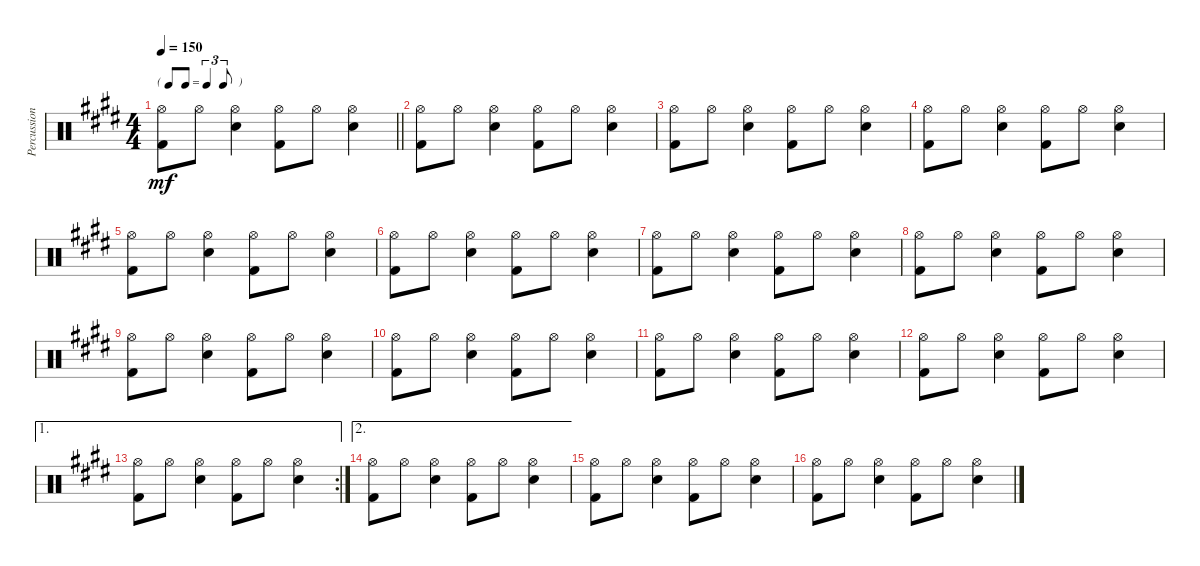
\track ("Percussion" "Percussion") {instrument percussion}
\staff {score}
\articulation defaults
\ts (4 4)
\tf triplet8th
\tempo 150
\clef neutral
\barLineRight lightlight
\ks e
("Hi-Hat (open)" "Kick (hit) 2").8{dy mf} "Hi-Hat (open)".8 ("Hi-Hat (open)" "Snare (hit) 2").4 ("Hi-Hat (open)" "Kick (hit) 2").8 "Hi-Hat (open)".8 ("Hi-Hat (open)" "Snare (hit) 2").4 |
("Hi-Hat (open)" "Kick (hit) 2").8 "Hi-Hat (open)".8 ("Hi-Hat (open)" "Snare (hit) 2").4 ("Hi-Hat (open)" "Kick (hit) 2").8 "Hi-Hat (open)".8 ("Hi-Hat (open)" "Snare (hit) 2").4 |
("Hi-Hat (open)" "Kick (hit) 2").8 "Hi-Hat (open)".8 ("Hi-Hat (open)" "Snare (hit) 2").4 ("Hi-Hat (open)" "Kick (hit) 2").8 "Hi-Hat (open)".8 ("Hi-Hat (open)" "Snare (hit) 2").4 |
("Hi-Hat (open)" "Kick (hit) 2").8 "Hi-Hat (open)".8 ("Hi-Hat (open)" "Snare (hit) 2").4 ("Hi-Hat (open)" "Kick (hit) 2").8 "Hi-Hat (open)".8 ("Hi-Hat (open)" "Snare (hit) 2").4 |
("Hi-Hat (open)" "Kick (hit) 2").8 "Hi-Hat (open)".8 ("Hi-Hat (open)" "Snare (hit) 2").4 ("Hi-Hat (open)" "Kick (hit) 2").8 "Hi-Hat (open)".8 ("Hi-Hat (open)" "Snare (hit) 2").4 |
("Hi-Hat (open)" "Kick (hit) 2").8 "Hi-Hat (open)".8 ("Hi-Hat (open)" "Snare (hit) 2").4 ("Hi-Hat (open)" "Kick (hit) 2").8 "Hi-Hat (open)".8 ("Hi-Hat (open)" "Snare (hit) 2").4 |
("Hi-Hat (open)" "Kick (hit) 2").8 "Hi-Hat (open)".8 ("Hi-Hat (open)" "Snare (hit) 2").4 ("Hi-Hat (open)" "Kick (hit) 2").8 "Hi-Hat (open)".8 ("Hi-Hat (open)" "Snare (hit) 2").4 |
("Hi-Hat (open)" "Kick (hit) 2").8 "Hi-Hat (open)".8 ("Hi-Hat (open)" "Snare (hit) 2").4 ("Hi-Hat (open)" "Kick (hit) 2").8 "Hi-Hat (open)".8 ("Hi-Hat (open)" "Snare (hit) 2").4 |
("Hi-Hat (open)" "Kick (hit) 2").8 "Hi-Hat (open)".8 ("Hi-Hat (open)" "Snare (hit) 2").4 ("Hi-Hat (open)" "Kick (hit) 2").8 "Hi-Hat (open)".8 ("Hi-Hat (open)" "Snare (hit) 2").4 |
("Hi-Hat (open)" "Kick (hit) 2").8 "Hi-Hat (open)".8 ("Hi-Hat (open)" "Snare (hit) 2").4 ("Hi-Hat (open)" "Kick (hit) 2").8 "Hi-Hat (open)".8 ("Hi-Hat (open)" "Snare (hit) 2").4 |
("Hi-Hat (open)" "Kick (hit) 2").8 "Hi-Hat (open)".8 ("Hi-Hat (open)" "Snare (hit) 2").4 ("Hi-Hat (open)" "Kick (hit) 2").8 "Hi-Hat (open)".8 ("Hi-Hat (open)" "Snare (hit) 2").4 |
("Hi-Hat (open)" "Kick (hit) 2").8 "Hi-Hat (open)".8 ("Hi-Hat (open)" "Snare (hit) 2").4 ("Hi-Hat (open)" "Kick (hit) 2").8 "Hi-Hat (open)".8 ("Hi-Hat (open)" "Snare (hit) 2").4 |
\ae 1
\rc 2
("Hi-Hat (open)" "Kick (hit) 2").8 "Hi-Hat (open)".8 ("Hi-Hat (open)" "Snare (hit) 2").4 ("Hi-Hat (open)" "Kick (hit) 2").8 "Hi-Hat (open)".8 ("Hi-Hat (open)" "Snare (hit) 2").4 |
\ae 2
("Hi-Hat (open)" "Kick (hit) 2").8 "Hi-Hat (open)".8 ("Hi-Hat (open)" "Snare (hit) 2").4 ("Hi-Hat (open)" "Kick (hit) 2").8 "Hi-Hat (open)".8 ("Hi-Hat (open)" "Snare (hit) 2").4 |
("Hi-Hat (open)" "Kick (hit) 2").8 "Hi-Hat (open)".8 ("Hi-Hat (open)" "Snare (hit) 2").4 ("Hi-Hat (open)" "Kick (hit) 2").8 "Hi-Hat (open)".8 ("Hi-Hat (open)" "Snare (hit) 2").4 |
("Hi-Hat (open)" "Kick (hit) 2").8 "Hi-Hat (open)".8 ("Hi-Hat (open)" "Snare (hit) 2").4 ("Hi-Hat (open)" "Kick (hit) 2").8 "Hi-Hat (open)".8 ("Hi-Hat (open)" "Snare (hit) 2").4
